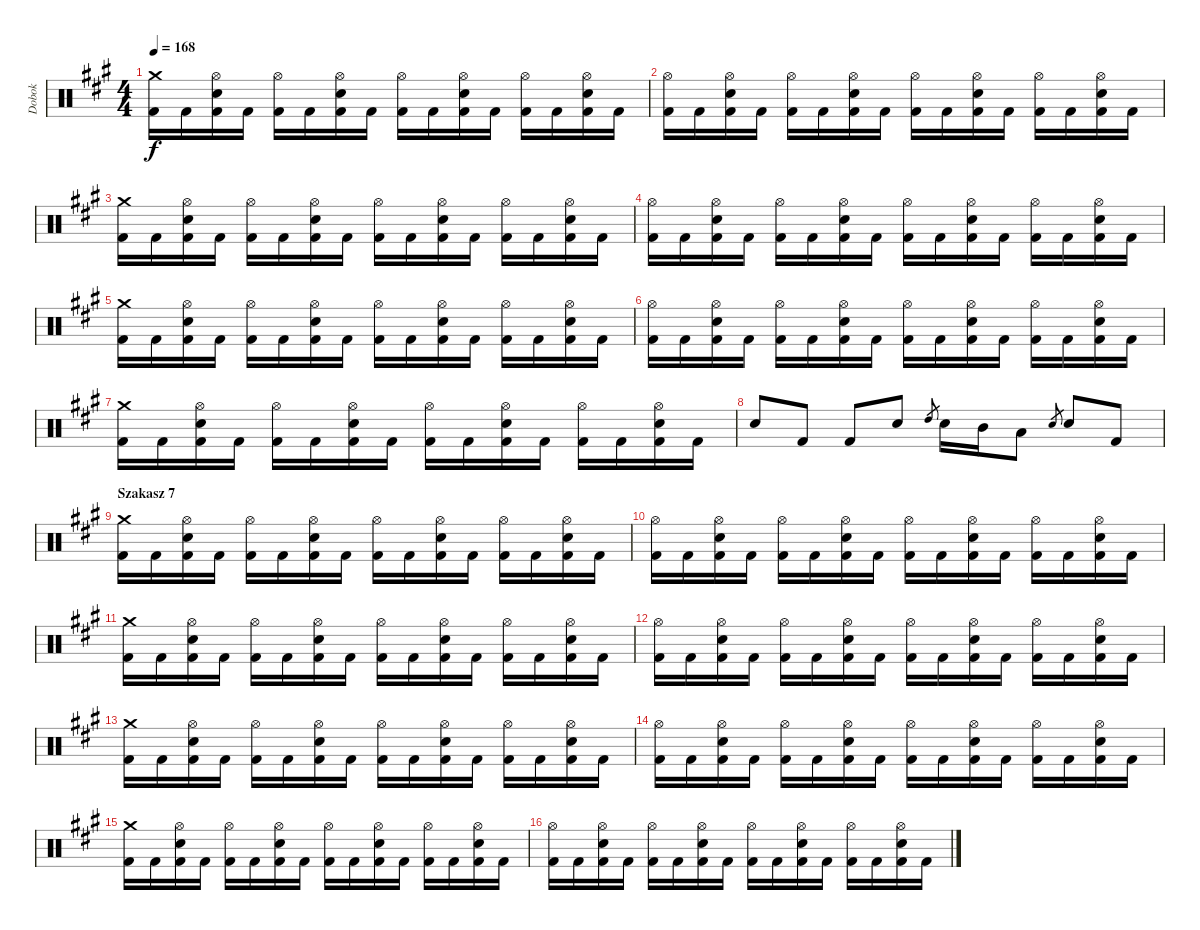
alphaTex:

\track ("Dobok" "Dobok") {instrument percussion}
\staff {score}
\articulation defaults
\ts (4 4)
\tempo 168
\clef neutral
\ks f#minor
("Crash medium (hit)" "Kick (hit) 2").16{dy f} "Kick (hit) 2".16 ("Hi-Hat (open)" "Snare (hit) 2" "Kick (hit) 2").16 "Kick (hit) 2".16 ("Hi-Hat (open)" "Kick (hit) 2").16 "Kick (hit) 2".16 ("Hi-Hat (open)" "Snare (hit) 2" "Kick (hit) 2").16 "Kick (hit) 2".16 ("Hi-Hat (open)" "Kick (hit) 2").16 "Kick (hit) 2".16 ("Hi-Hat (open)" "Snare (hit) 2" "Kick (hit) 2").16 "Kick (hit) 2".16 ("Hi-Hat (open)" "Kick (hit) 2").16 "Kick (hit) 2".16 ("Hi-Hat (open)" "Snare (hit) 2" "Kick (hit) 2").16 "Kick (hit) 2".16 |
("Hi-Hat (open)" "Kick (hit) 2").16 "Kick (hit) 2".16 ("Hi-Hat (open)" "Snare (hit) 2" "Kick (hit) 2").16 "Kick (hit) 2".16 ("Hi-Hat (open)" "Kick (hit) 2").16 "Kick (hit) 2".16 ("Hi-Hat (open)" "Snare (hit) 2" "Kick (hit) 2").16 "Kick (hit) 2".16 ("Hi-Hat (open)" "Kick (hit) 2").16 "Kick (hit) 2".16 ("Hi-Hat (open)" "Snare (hit) 2" "Kick (hit) 2").16 "Kick (hit) 2".16 ("Hi-Hat (open)" "Kick (hit) 2").16 "Kick (hit) 2".16 ("Hi-Hat (open)" "Snare (hit) 2" "Kick (hit) 2").16 "Kick (hit) 2".16 |
("Crash medium (hit)" "Kick (hit) 2").16 "Kick (hit) 2".16 ("Hi-Hat (open)" "Snare (hit) 2" "Kick (hit) 2").16 "Kick (hit) 2".16 ("Hi-Hat (open)" "Kick (hit) 2").16 "Kick (hit) 2".16 ("Hi-Hat (open)" "Snare (hit) 2" "Kick (hit) 2").16 "Kick (hit) 2".16 ("Hi-Hat (open)" "Kick (hit) 2").16 "Kick (hit) 2".16 ("Hi-Hat (open)" "Snare (hit) 2" "Kick (hit) 2").16 "Kick (hit) 2".16 ("Hi-Hat (open)" "Kick (hit) 2").16 "Kick (hit) 2".16 ("Hi-Hat (open)" "Snare (hit) 2" "Kick (hit) 2").16 "Kick (hit) 2".16 |
("Hi-Hat (open)" "Kick (hit) 2").16 "Kick (hit) 2".16 ("Hi-Hat (open)" "Snare (hit) 2" "Kick (hit) 2").16 "Kick (hit) 2".16 ("Hi-Hat (open)" "Kick (hit) 2").16 "Kick (hit) 2".16 ("Hi-Hat (open)" "Snare (hit) 2" "Kick (hit) 2").16 "Kick (hit) 2".16 ("Hi-Hat (open)" "Kick (hit) 2").16 "Kick (hit) 2".16 ("Hi-Hat (open)" "Snare (hit) 2" "Kick (hit) 2").16 "Kick (hit) 2".16 ("Hi-Hat (open)" "Kick (hit) 2").16 "Kick (hit) 2".16 ("Hi-Hat (open)" "Snare (hit) 2" "Kick (hit) 2").16 "Kick (hit) 2".16 |
("Crash medium (hit)" "Kick (hit) 2").16 "Kick (hit) 2".16 ("Hi-Hat (open)" "Snare (hit) 2" "Kick (hit) 2").16 "Kick (hit) 2".16 ("Hi-Hat (open)" "Kick (hit) 2").16 "Kick (hit) 2".16 ("Hi-Hat (open)" "Snare (hit) 2" "Kick (hit) 2").16 "Kick (hit) 2".16 ("Hi-Hat (open)" "Kick (hit) 2").16 "Kick (hit) 2".16 ("Hi-Hat (open)" "Snare (hit) 2" "Kick (hit) 2").16 "Kick (hit) 2".16 ("Hi-Hat (open)" "Kick (hit) 2").16 "Kick (hit) 2".16 ("Hi-Hat (open)" "Snare (hit) 2" "Kick (hit) 2").16 "Kick (hit) 2".16 |
("Hi-Hat (open)" "Kick (hit) 2").16 "Kick (hit) 2".16 ("Hi-Hat (open)" "Snare (hit) 2" "Kick (hit) 2").16 "Kick (hit) 2".16 ("Hi-Hat (open)" "Kick (hit) 2").16 "Kick (hit) 2".16 ("Hi-Hat (open)" "Snare (hit) 2" "Kick (hit) 2").16 "Kick (hit) 2".16 ("Hi-Hat (open)" "Kick (hit) 2").16 "Kick (hit) 2".16 ("Hi-Hat (open)" "Snare (hit) 2" "Kick (hit) 2").16 "Kick (hit) 2".16 ("Hi-Hat (open)" "Kick (hit) 2").16 "Kick (hit) 2".16 ("Hi-Hat (open)" "Snare (hit) 2" "Kick (hit) 2").16 "Kick (hit) 2".16 |
("Crash medium (hit)" "Kick (hit) 2").16 "Kick (hit) 2".16 ("Hi-Hat (open)" "Snare (hit) 2" "Kick (hit) 2").16 "Kick (hit) 2".16 ("Hi-Hat (open)" "Kick (hit) 2").16 "Kick (hit) 2".16 ("Hi-Hat (open)" "Snare (hit) 2" "Kick (hit) 2").16 "Kick (hit) 2".16 ("Hi-Hat (open)" "Kick (hit) 2").16 "Kick (hit) 2".16 ("Hi-Hat (open)" "Snare (hit) 2" "Kick (hit) 2").16 "Kick (hit) 2".16 ("Hi-Hat (open)" "Kick (hit) 2").16 "Kick (hit) 2".16 ("Hi-Hat (open)" "Snare (hit) 2" "Kick (hit) 2").16 "Kick (hit) 2".16 |
"Snare (hit) 2".8 "Kick (hit) 2".8 "Kick (hit) 2".8 "Snare (hit) 2".8 "High Tom (hit)".8{gr} "Snare (hit) 2".16 "Mid Tom (hit)".16 "Low Tom (hit)".8 "Snare (hit) 2".8{gr} "Snare (hit) 2".8 "Kick (hit) 2".8 |
\section ("" "Szakasz 7")
("Crash medium (hit)" "Kick (hit) 2").16 "Kick (hit) 2".16 ("Hi-Hat (open)" "Snare (hit) 2" "Kick (hit) 2").16 "Kick (hit) 2".16 ("Hi-Hat (open)" "Kick (hit) 2").16 "Kick (hit) 2".16 ("Hi-Hat (open)" "Snare (hit) 2" "Kick (hit) 2").16 "Kick (hit) 2".16 ("Hi-Hat (open)" "Kick (hit) 2").16 "Kick (hit) 2".16 ("Hi-Hat (open)" "Snare (hit) 2" "Kick (hit) 2").16 "Kick (hit) 2".16 ("Hi-Hat (open)" "Kick (hit) 2").16 "Kick (hit) 2".16 ("Hi-Hat (open)" "Snare (hit) 2" "Kick (hit) 2").16 "Kick (hit) 2".16 |
("Hi-Hat (open)" "Kick (hit) 2").16 "Kick (hit) 2".16 ("Hi-Hat (open)" "Snare (hit) 2" "Kick (hit) 2").16 "Kick (hit) 2".16 ("Hi-Hat (open)" "Kick (hit) 2").16 "Kick (hit) 2".16 ("Hi-Hat (open)" "Snare (hit) 2" "Kick (hit) 2").16 "Kick (hit) 2".16 ("Hi-Hat (open)" "Kick (hit) 2").16 "Kick (hit) 2".16 ("Hi-Hat (open)" "Snare (hit) 2" "Kick (hit) 2").16 "Kick (hit) 2".16 ("Hi-Hat (open)" "Kick (hit) 2").16 "Kick (hit) 2".16 ("Hi-Hat (open)" "Snare (hit) 2" "Kick (hit) 2").16 "Kick (hit) 2".16 |
("Crash medium (hit)" "Kick (hit) 2").16 "Kick (hit) 2".16 ("Hi-Hat (open)" "Snare (hit) 2" "Kick (hit) 2").16 "Kick (hit) 2".16 ("Hi-Hat (open)" "Kick (hit) 2").16 "Kick (hit) 2".16 ("Hi-Hat (open)" "Snare (hit) 2" "Kick (hit) 2").16 "Kick (hit) 2".16 ("Hi-Hat (open)" "Kick (hit) 2").16 "Kick (hit) 2".16 ("Hi-Hat (open)" "Snare (hit) 2" "Kick (hit) 2").16 "Kick (hit) 2".16 ("Hi-Hat (open)" "Kick (hit) 2").16 "Kick (hit) 2".16 ("Hi-Hat (open)" "Snare (hit) 2" "Kick (hit) 2").16 "Kick (hit) 2".16 |
("Hi-Hat (open)" "Kick (hit) 2").16 "Kick (hit) 2".16 ("Hi-Hat (open)" "Snare (hit) 2" "Kick (hit) 2").16 "Kick (hit) 2".16 ("Hi-Hat (open)" "Kick (hit) 2").16 "Kick (hit) 2".16 ("Hi-Hat (open)" "Snare (hit) 2" "Kick (hit) 2").16 "Kick (hit) 2".16 ("Hi-Hat (open)" "Kick (hit) 2").16 "Kick (hit) 2".16 ("Hi-Hat (open)" "Snare (hit) 2" "Kick (hit) 2").16 "Kick (hit) 2".16 ("Hi-Hat (open)" "Kick (hit) 2").16 "Kick (hit) 2".16 ("Hi-Hat (open)" "Snare (hit) 2" "Kick (hit) 2").16 "Kick (hit) 2".16 |
("Crash medium (hit)" "Kick (hit) 2").16 "Kick (hit) 2".16 ("Hi-Hat (open)" "Snare (hit) 2" "Kick (hit) 2").16 "Kick (hit) 2".16 ("Hi-Hat (open)" "Kick (hit) 2").16 "Kick (hit) 2".16 ("Hi-Hat (open)" "Snare (hit) 2" "Kick (hit) 2").16 "Kick (hit) 2".16 ("Hi-Hat (open)" "Kick (hit) 2").16 "Kick (hit) 2".16 ("Hi-Hat (open)" "Snare (hit) 2" "Kick (hit) 2").16 "Kick (hit) 2".16 ("Hi-Hat (open)" "Kick (hit) 2").16 "Kick (hit) 2".16 ("Hi-Hat (open)" "Snare (hit) 2" "Kick (hit) 2").16 "Kick (hit) 2".16 |
("Hi-Hat (open)" "Kick (hit) 2").16 "Kick (hit) 2".16 ("Hi-Hat (open)" "Snare (hit) 2" "Kick (hit) 2").16 "Kick (hit) 2".16 ("Hi-Hat (open)" "Kick (hit) 2").16 "Kick (hit) 2".16 ("Hi-Hat (open)" "Snare (hit) 2" "Kick (hit) 2").16 "Kick (hit) 2".16 ("Hi-Hat (open)" "Kick (hit) 2").16 "Kick (hit) 2".16 ("Hi-Hat (open)" "Snare (hit) 2" "Kick (hit) 2").16 "Kick (hit) 2".16 ("Hi-Hat (open)" "Kick (hit) 2").16 "Kick (hit) 2".16 ("Hi-Hat (open)" "Snare (hit) 2" "Kick (hit) 2").16 "Kick (hit) 2".16 |
("Crash medium (hit)" "Kick (hit) 2").16 "Kick (hit) 2".16 ("Hi-Hat (open)" "Snare (hit) 2" "Kick (hit) 2").16 "Kick (hit) 2".16 ("Hi-Hat (open)" "Kick (hit) 2").16 "Kick (hit) 2".16 ("Hi-Hat (open)" "Snare (hit) 2" "Kick (hit) 2").16 "Kick (hit) 2".16 ("Hi-Hat (open)" "Kick (hit) 2").16 "Kick (hit) 2".16 ("Hi-Hat (open)" "Snare (hit) 2" "Kick (hit) 2").16 "Kick (hit) 2".16 ("Hi-Hat (open)" "Kick (hit) 2").16 "Kick (hit) 2".16 ("Hi-Hat (open)" "Snare (hit) 2" "Kick (hit) 2").16 "Kick (hit) 2".16 |
("Hi-Hat (open)" "Kick (hit) 2").16 "Kick (hit) 2".16 ("Hi-Hat (open)" "Snare (hit) 2" "Kick (hit) 2").16 "Kick (hit) 2".16 ("Hi-Hat (open)" "Kick (hit) 2").16 "Kick (hit) 2".16 ("Hi-Hat (open)" "Snare (hit) 2" "Kick (hit) 2").16 "Kick (hit) 2".16 ("Hi-Hat (open)" "Kick (hit) 2").16 "Kick (hit) 2".16 ("Hi-Hat (open)" "Snare (hit) 2" "Kick (hit) 2").16 "Kick (hit) 2".16 ("Hi-Hat (open)" "Kick (hit) 2").16 "Kick (hit) 2".16 ("Hi-Hat (open)" "Snare (hit) 2" "Kick (hit) 2").16 "Kick (hit) 2".16
